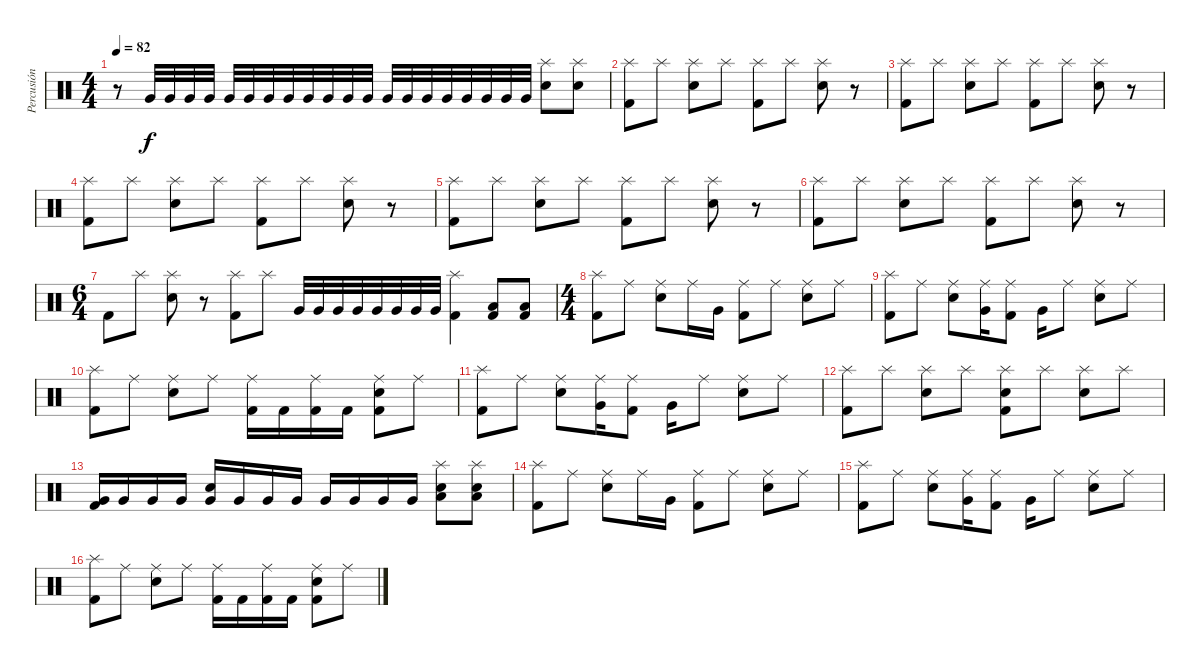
\track ("Percusión" "Percusión") {instrument percussion}
\staff {score}
\articulation defaults
\ts (4 4)
\tempo 82
\clef neutral
\ks c
r.8{dy f} "Very Low Tom (hit)".32 "Very Low Tom (hit)".32 "Very Low Tom (hit)".32 "Very Low Tom (hit)".32 "Very Low Tom (hit)".32 "Very Low Tom (hit)".32 "Very Low Tom (hit)".32 "Very Low Tom (hit)".32 "Very Low Tom (hit)".32 "Very Low Tom (hit)".32 "Very Low Tom (hit)".32 "Very Low Tom (hit)".32 "Very Low Tom (hit)".32 "Very Low Tom (hit)".32 "Very Low Tom (hit)".32 "Very Low Tom (hit)".32 "Very Low Tom (hit)".32 "Very Low Tom (hit)".32 "Very Low Tom (hit)".32 "Very Low Tom (hit)".32 ("Splash (hit)" "Snare (hit) 2").8 ("Splash (hit)" "Snare (hit) 2").8 |
("Splash (hit)" "Kick (hit) 2").8 "Splash (hit)".8 ("Splash (hit)" "Snare (hit) 2").8 "Splash (hit)".8 ("Splash (hit)" "Kick (hit) 2").8 "Splash (hit)".8 ("Splash (hit)" "Snare (hit) 2").8 r.8 |
("Splash (hit)" "Kick (hit) 2").8 "Splash (hit)".8 ("Splash (hit)" "Snare (hit) 2").8 "Splash (hit)".8 ("Splash (hit)" "Kick (hit) 2").8 "Splash (hit)".8 ("Splash (hit)" "Snare (hit) 2").8 r.8 |
("Splash (hit)" "Kick (hit) 2").8 "Splash (hit)".8 ("Splash (hit)" "Snare (hit) 2").8 "Splash (hit)".8 ("Splash (hit)" "Kick (hit) 2").8 "Splash (hit)".8 ("Splash (hit)" "Snare (hit) 2").8 r.8 |
("Splash (hit)" "Kick (hit) 2").8 "Splash (hit)".8 ("Splash (hit)" "Snare (hit) 2").8 "Splash (hit)".8 ("Splash (hit)" "Kick (hit) 2").8 "Splash (hit)".8 ("Splash (hit)" "Snare (hit) 2").8 r.8 |
("Splash (hit)" "Kick (hit) 2").8 "Splash (hit)".8 ("Splash (hit)" "Snare (hit) 2").8 "Splash (hit)".8 ("Splash (hit)" "Kick (hit) 2").8 "Splash (hit)".8 ("Splash (hit)" "Snare (hit) 2").8 r.8 |
\ts (6 4)
"Kick (hit) 2".8 "Splash (hit)".8 ("Splash (hit)" "Snare (hit) 2").8 r.8 ("Splash (hit)" "Kick (hit) 2").8 "Splash (hit)".8 "Very Low Tom (hit)".32 "Very Low Tom (hit)".32 "Very Low Tom (hit)".32 "Very Low Tom (hit)".32 "Very Low Tom (hit)".32 "Very Low Tom (hit)".32 "Very Low Tom (hit)".32 "Very Low Tom (hit)".32 ("Splash (hit)" "Kick (hit) 2").4 ("Low Tom (hit)" "Kick (hit) 2").8 ("Low Tom (hit)" "Kick (hit) 2").8 |
\ts (4 4)
("Splash (hit)" "Kick (hit) 2").8 "Ride (middle)".8 ("Ride (middle)" "Snare (hit) 2").8 "Ride (middle)".16 "Very Low Tom (hit)".16 ("Ride (middle)" "Kick (hit) 2").8 "Ride (middle)".8 ("Ride (middle)" "Snare (hit) 2").8 "Ride (middle)".8 |
("Splash (hit)" "Kick (hit) 2").8 "Ride (middle)".8 ("Ride (middle)" "Snare (hit) 2").8 ("Ride (middle)" "Very Low Tom (hit)").16 ("Ride (middle)" "Kick (hit) 2").8 "Very Low Tom (hit)".16 "Ride (middle)".8 ("Ride (middle)" "Snare (hit) 2").8 "Ride (middle)".8 |
("Splash (hit)" "Kick (hit) 2").8 "Ride (middle)".8 ("Ride (middle)" "Snare (hit) 2").8 "Ride (middle)".8 ("Ride (middle)" "Kick (hit) 2").16 "Kick (hit) 2".16 ("Ride (middle)" "Kick (hit) 2").16 "Kick (hit) 2".16 ("Ride (middle)" "Snare (hit) 2" "Kick (hit) 2").8 "Ride (middle)".8 |
("Splash (hit)" "Kick (hit) 2").8 "Ride (middle)".8 ("Ride (middle)" "Snare (hit) 2").8 ("Ride (middle)" "Very Low Tom (hit)").16 ("Ride (middle)" "Kick (hit) 2").8 "Very Low Tom (hit)".16 "Ride (middle)".8 ("Ride (middle)" "Snare (hit) 2").8 "Ride (middle)".8 |
("Splash (hit)" "Kick (hit) 2").8 "Splash (hit)".8 ("Splash (hit)" "Snare (hit) 2").8 "Splash (hit)".8 ("Splash (hit)" "Snare (hit) 2" "Kick (hit) 2").8 "Splash (hit)".8 ("Splash (hit)" "Snare (hit) 2").8 "Splash (hit)".8 |
("Very Low Tom (hit)" "Kick (hit) 2").16 "Very Low Tom (hit)".16 "Very Low Tom (hit)".16 "Very Low Tom (hit)".16 ("Very Low Tom (hit)" "Snare (hit) 2").16 "Very Low Tom (hit)".16 "Very Low Tom (hit)".16 "Very Low Tom (hit)".16 "Very Low Tom (hit)".16 "Very Low Tom (hit)".16 "Very Low Tom (hit)".16 "Very Low Tom (hit)".16 ("Splash (hit)" "Low Tom (hit)" "Snare (hit) 2").8 ("Splash (hit)" "Low Tom (hit)" "Snare (hit) 2").8 |
("Splash (hit)" "Kick (hit) 2").8 "Ride (middle)".8 ("Ride (middle)" "Snare (hit) 2").8 "Ride (middle)".16 "Very Low Tom (hit)".16 ("Ride (middle)" "Kick (hit) 2").8 "Ride (middle)".8 ("Ride (middle)" "Snare (hit) 2").8 "Ride (middle)".8 |
("Splash (hit)" "Kick (hit) 2").8 "Ride (middle)".8 ("Ride (middle)" "Snare (hit) 2").8 ("Ride (middle)" "Very Low Tom (hit)").16 ("Ride (middle)" "Kick (hit) 2").8 "Very Low Tom (hit)".16 "Ride (middle)".8 ("Ride (middle)" "Snare (hit) 2").8 "Ride (middle)".8 |
("Splash (hit)" "Kick (hit) 2").8 "Ride (middle)".8 ("Ride (middle)" "Snare (hit) 2").8 "Ride (middle)".8 ("Ride (middle)" "Kick (hit) 2").16 "Kick (hit) 2".16 ("Ride (middle)" "Kick (hit) 2").16 "Kick (hit) 2".16 ("Ride (middle)" "Snare (hit) 2" "Kick (hit) 2").8 "Ride (middle)".8
